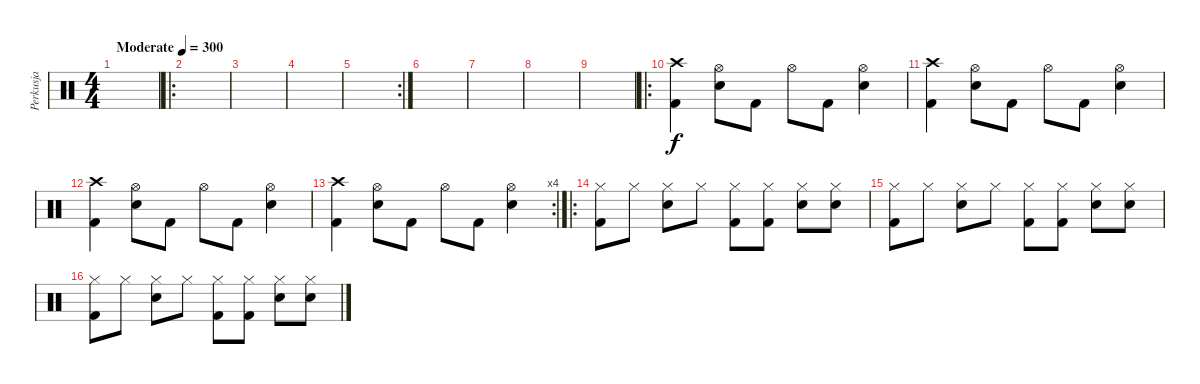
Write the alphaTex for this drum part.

\track ("Perkusja" "Perkusja") {instrument percussion}
\staff {score}
\articulation defaults
\ts (4 4)
\tempo (300 "Moderate")
\clef neutral
\ks c
|
\ro
|
|
|
\rc 2
|
|
|
|
|
\ro
("Crash high (hit)" "Kick (hit) 2").4 ("Hi-Hat (open)" "Electric Snare (hit)").8 "Kick (hit) 2".8 "Hi-Hat (open)".8 "Kick (hit) 2".8 ("Hi-Hat (open)" "Electric Snare (hit)").4 |
("Crash high (hit)" "Kick (hit) 2").4 ("Hi-Hat (open)" "Electric Snare (hit)").8 "Kick (hit) 2".8 "Hi-Hat (open)".8 "Kick (hit) 2".8 ("Hi-Hat (open)" "Electric Snare (hit)").4 |
("Crash high (hit)" "Kick (hit) 2").4 ("Hi-Hat (open)" "Electric Snare (hit)").8 "Kick (hit) 2".8 "Hi-Hat (open)".8 "Kick (hit) 2".8 ("Hi-Hat (open)" "Electric Snare (hit)").4 |
\rc 4
("Crash high (hit)" "Kick (hit) 2").4 ("Hi-Hat (open)" "Electric Snare (hit)").8 "Kick (hit) 2".8 "Hi-Hat (open)".8 "Kick (hit) 2".8 ("Hi-Hat (open)" "Electric Snare (hit)").4 |
\ro
("Kick (hit) 2" "Hi-Hat (closed)").8 "Hi-Hat (closed)".8 ("Snare (hit) 2" "Hi-Hat (closed)").8 "Hi-Hat (closed)".8 ("Kick (hit) 2" "Hi-Hat (closed)").8 ("Kick (hit) 2" "Hi-Hat (closed)").8 ("Snare (hit) 2" "Hi-Hat (closed)").8 ("Snare (hit) 2" "Hi-Hat (closed)").8 |
("Kick (hit) 2" "Hi-Hat (closed)").8 "Hi-Hat (closed)".8 ("Snare (hit) 2" "Hi-Hat (closed)").8 "Hi-Hat (closed)".8 ("Kick (hit) 2" "Hi-Hat (closed)").8 ("Kick (hit) 2" "Hi-Hat (closed)").8 ("Snare (hit) 2" "Hi-Hat (closed)").8 ("Snare (hit) 2" "Hi-Hat (closed)").8 |
("Kick (hit) 2" "Hi-Hat (closed)").8 "Hi-Hat (closed)".8 ("Snare (hit) 2" "Hi-Hat (closed)").8 "Hi-Hat (closed)".8 ("Kick (hit) 2" "Hi-Hat (closed)").8 ("Kick (hit) 2" "Hi-Hat (closed)").8 ("Snare (hit) 2" "Hi-Hat (closed)").8 ("Snare (hit) 2" "Hi-Hat (closed)").8
